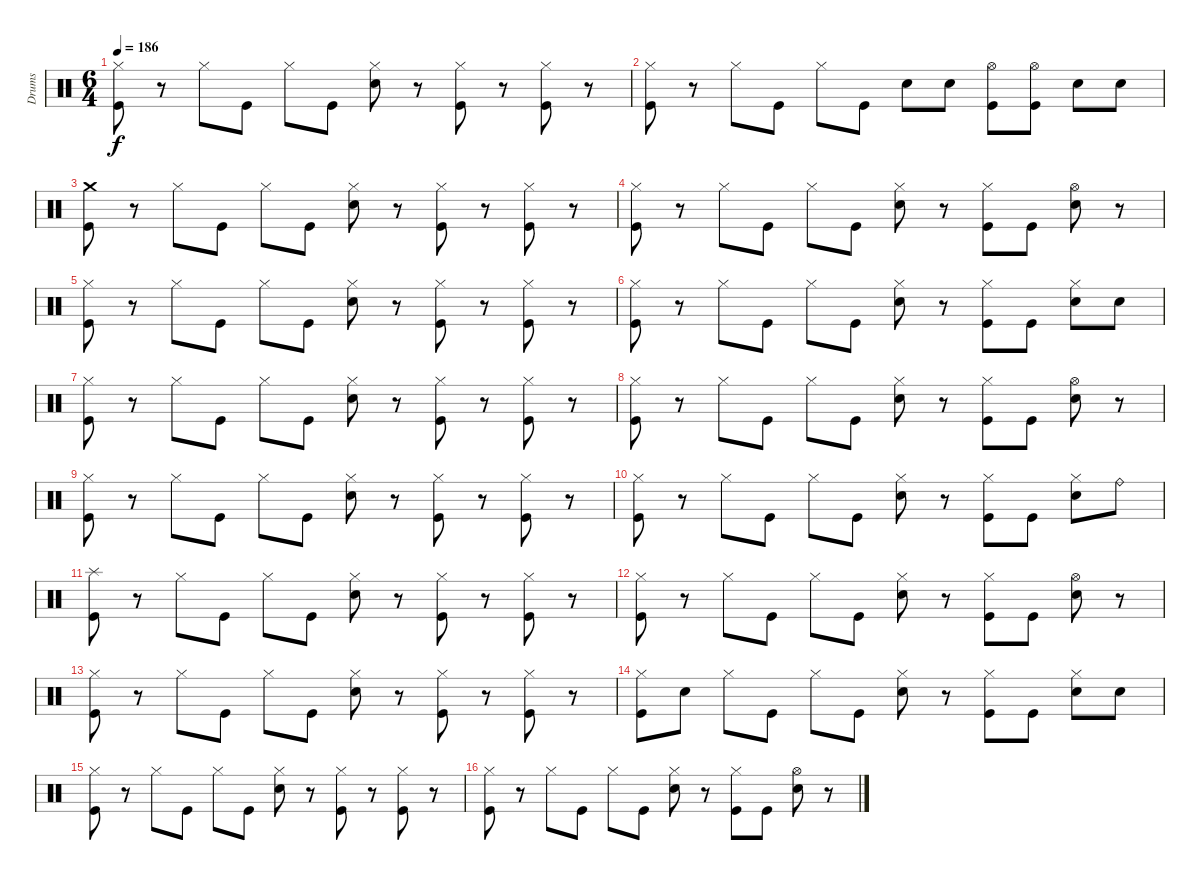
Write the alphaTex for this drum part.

\track ("Drums" "Drums") {instrument percussion}
\staff {score}
\articulation defaults
\ts (6 4)
\tempo 186
\clef neutral
\ks c
("Hi-Hat (closed)" "Kick (hit)").8{dy f} r.8 "Hi-Hat (closed)".8 "Kick (hit)".8 "Hi-Hat (closed)".8 "Kick (hit)".8 ("Hi-Hat (closed)" "Snare (hit) 2").8 r.8 ("Hi-Hat (closed)" "Kick (hit)").8 r.8 ("Hi-Hat (closed)" "Kick (hit)").8 r.8 |
("Hi-Hat (closed)" "Kick (hit)").8 r.8 "Hi-Hat (closed)".8 "Kick (hit)".8 "Hi-Hat (closed)".8 "Kick (hit)".8 "Snare (hit) 2".8 "Snare (hit) 2".8 ("Kick (hit)" "Hi-Hat (open)").8 ("Hi-Hat (open)" "Kick (hit)").8 "Snare (hit) 2".8 "Snare (hit) 2".8 |
("Kick (hit)" "Crash medium (hit)").8 r.8 "Hi-Hat (closed)".8 "Kick (hit)".8 "Hi-Hat (closed)".8 "Kick (hit)".8 ("Hi-Hat (closed)" "Snare (hit) 2").8 r.8 ("Hi-Hat (closed)" "Kick (hit)").8 r.8 ("Hi-Hat (closed)" "Kick (hit)").8 r.8 |
("Hi-Hat (closed)" "Kick (hit)").8 r.8 "Hi-Hat (closed)".8 "Kick (hit)".8 "Hi-Hat (closed)".8 "Kick (hit)".8 ("Hi-Hat (closed)" "Snare (hit) 2").8 r.8 ("Hi-Hat (closed)" "Kick (hit)").8 "Kick (hit)".8 ("Hi-Hat (open)" "Snare (hit) 2").8 r.8 |
("Hi-Hat (closed)" "Kick (hit)").8 r.8 "Hi-Hat (closed)".8 "Kick (hit)".8 "Hi-Hat (closed)".8 "Kick (hit)".8 ("Hi-Hat (closed)" "Snare (hit) 2").8 r.8 ("Hi-Hat (closed)" "Kick (hit)").8 r.8 ("Hi-Hat (closed)" "Kick (hit)").8 r.8 |
("Hi-Hat (closed)" "Kick (hit)").8 r.8 "Hi-Hat (closed)".8 "Kick (hit)".8 "Hi-Hat (closed)".8 "Kick (hit)".8 ("Hi-Hat (closed)" "Snare (hit) 2").8 r.8 ("Hi-Hat (closed)" "Kick (hit)").8 "Kick (hit)".8 ("Hi-Hat (closed)" "Snare (hit) 2").8 "Snare (hit) 2".8 |
("Hi-Hat (closed)" "Kick (hit)").8 r.8 "Hi-Hat (closed)".8 "Kick (hit)".8 "Hi-Hat (closed)".8 "Kick (hit)".8 ("Hi-Hat (closed)" "Snare (hit) 2").8 r.8 ("Hi-Hat (closed)" "Kick (hit)").8 r.8 ("Hi-Hat (closed)" "Kick (hit)").8 r.8 |
("Hi-Hat (closed)" "Kick (hit)").8 r.8 "Hi-Hat (closed)".8 "Kick (hit)".8 "Hi-Hat (closed)".8 "Kick (hit)".8 ("Hi-Hat (closed)" "Snare (hit) 2").8 r.8 ("Hi-Hat (closed)" "Kick (hit)").8 "Kick (hit)".8 ("Hi-Hat (open)" "Snare (hit) 2").8 r.8 |
("Hi-Hat (closed)" "Kick (hit)").8 r.8 "Hi-Hat (closed)".8 "Kick (hit)".8 "Hi-Hat (closed)".8 "Kick (hit)".8 ("Hi-Hat (closed)" "Snare (hit) 2").8 r.8 ("Hi-Hat (closed)" "Kick (hit)").8 r.8 ("Hi-Hat (closed)" "Kick (hit)").8 r.8 |
("Hi-Hat (closed)" "Kick (hit)").8 r.8 "Hi-Hat (closed)".8 "Kick (hit)".8 "Hi-Hat (closed)".8 "Kick (hit)".8 ("Hi-Hat (closed)" "Snare (hit) 2").8 r.8 ("Hi-Hat (closed)" "Kick (hit)").8 "Kick (hit)".8 ("Hi-Hat (closed)" "Snare (hit) 2").8 "Ride (bell)".8 |
("Kick (hit)" "Splash (hit)").8 r.8 "Hi-Hat (closed)".8 "Kick (hit)".8 "Hi-Hat (closed)".8 "Kick (hit)".8 ("Hi-Hat (closed)" "Snare (hit) 2").8 r.8 ("Hi-Hat (closed)" "Kick (hit)").8 r.8 ("Hi-Hat (closed)" "Kick (hit)").8 r.8 |
("Hi-Hat (closed)" "Kick (hit)").8 r.8 "Hi-Hat (closed)".8 "Kick (hit)".8 "Hi-Hat (closed)".8 "Kick (hit)".8 ("Hi-Hat (closed)" "Snare (hit) 2").8 r.8 ("Hi-Hat (closed)" "Kick (hit)").8 "Kick (hit)".8 ("Snare (hit) 2" "Hi-Hat (open)").8 r.8 |
("Hi-Hat (closed)" "Kick (hit)").8 r.8 "Hi-Hat (closed)".8 "Kick (hit)".8 "Hi-Hat (closed)".8 "Kick (hit)".8 ("Hi-Hat (closed)" "Snare (hit) 2").8 r.8 ("Hi-Hat (closed)" "Kick (hit)").8 r.8 ("Hi-Hat (closed)" "Kick (hit)").8 r.8 |
("Hi-Hat (closed)" "Kick (hit)").8 "Snare (hit) 2".8 "Hi-Hat (closed)".8 "Kick (hit)".8 "Hi-Hat (closed)".8 "Kick (hit)".8 ("Hi-Hat (closed)" "Snare (hit) 2").8 r.8 ("Hi-Hat (closed)" "Kick (hit)").8 "Kick (hit)".8 ("Hi-Hat (closed)" "Snare (hit) 2").8 "Snare (hit) 2".8 |
("Hi-Hat (closed)" "Kick (hit)").8 r.8 "Hi-Hat (closed)".8 "Kick (hit)".8 "Hi-Hat (closed)".8 "Kick (hit)".8 ("Hi-Hat (closed)" "Snare (hit) 2").8 r.8 ("Hi-Hat (closed)" "Kick (hit)").8 r.8 ("Hi-Hat (closed)" "Kick (hit)").8 r.8 |
("Hi-Hat (closed)" "Kick (hit)").8 r.8 "Hi-Hat (closed)".8 "Kick (hit)".8 "Hi-Hat (closed)".8 "Kick (hit)".8 ("Hi-Hat (closed)" "Snare (hit) 2").8 r.8 ("Hi-Hat (closed)" "Kick (hit)").8 "Kick (hit)".8 ("Snare (hit) 2" "Hi-Hat (open)").8 r.8
